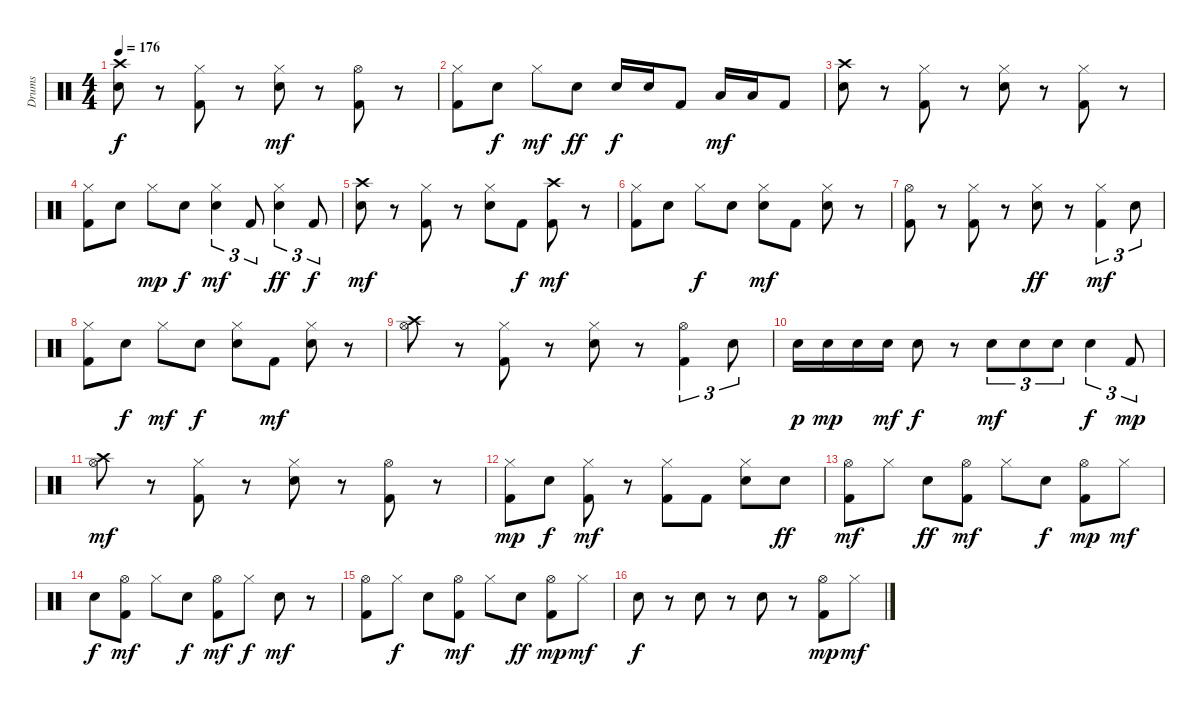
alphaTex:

\track ("Drums" "Drums") {instrument percussion}
\staff {score}
\articulation defaults
\ts (4 4)
\tempo 176
\clef neutral
\ks c
("Crash high (hit)" "Snare (hit) 2").8{dy f} r.8 ("Hi-Hat (closed)" "Kick (hit) 2").8 r.8 ("Hi-Hat (closed)" "Snare (hit) 2").8{dy mf} r.8 ("Hi-Hat (open)" "Kick (hit) 2").8 r.8 |
("Hi-Hat (closed)" "Kick (hit) 2").8 "Snare (hit) 2".8{dy f} "Hi-Hat (closed)".8{dy mf} "Snare (hit) 2".8{dy ff} "Snare (hit) 2".16{dy f} "Snare (hit) 2".16 "Kick (hit) 2".8 "Low Tom (hit)".16{dy mf} "Low Tom (hit)".16 "Kick (hit) 2".8 |
("Crash high (hit)" "Snare (hit) 2").8 r.8 ("Hi-Hat (closed)" "Kick (hit) 2").8 r.8 ("Hi-Hat (closed)" "Snare (hit) 2").8 r.8 ("Hi-Hat (closed)" "Kick (hit) 2").8 r.8 |
("Hi-Hat (closed)" "Kick (hit) 2").8 "Snare (hit) 2".8 "Hi-Hat (closed)".8{dy mp} "Snare (hit) 2".8{dy f} ("Hi-Hat (closed)" "Snare (hit) 2").4{tu (3 2) dy mf} "Kick (hit) 2".8{tu (3 2)} ("Hi-Hat (closed)" "Snare (hit) 2").4{tu (3 2) dy ff} "Kick (hit) 2".8{tu (3 2) dy f} |
("Crash high (hit)" "Snare (hit) 2").8{dy mf} r.8 ("Hi-Hat (closed)" "Kick (hit) 2").8 r.8 ("Hi-Hat (closed)" "Snare (hit) 2").8 "Kick (hit) 2".8{dy f} ("Crash high (hit)" "Kick (hit) 2").8{dy mf} r.8 |
("Hi-Hat (closed)" "Kick (hit) 2").8 "Snare (hit) 2".8 "Hi-Hat (closed)".8{dy f} "Snare (hit) 2".8 ("Hi-Hat (closed)" "Snare (hit) 2").8{dy mf} "Kick (hit) 2".8 ("Hi-Hat (closed)" "Snare (hit) 2").8 r.8 |
("Hi-Hat (open)" "Kick (hit) 2").8 r.8 ("Hi-Hat (closed)" "Kick (hit) 2").8 r.8 ("Hi-Hat (closed)" "Snare (hit) 2").8{dy ff} r.8 ("Hi-Hat (closed)" "Kick (hit) 2").4{tu (3 2) dy mf} "Snare (hit) 2".8{tu (3 2)} |
("Hi-Hat (closed)" "Kick (hit) 2").8 "Snare (hit) 2".8{dy f} "Hi-Hat (closed)".8{dy mf} "Snare (hit) 2".8{dy f} ("Hi-Hat (closed)" "Snare (hit) 2").8 "Kick (hit) 2".8{dy mf} ("Hi-Hat (closed)" "Snare (hit) 2").8 r.8 |
("Crash high (hit)" "Hi-Hat (open)").8 r.8 ("Hi-Hat (closed)" "Kick (hit) 2").8 r.8 ("Hi-Hat (closed)" "Snare (hit) 2").8 r.8 ("Hi-Hat (open)" "Kick (hit) 2").4{tu (3 2)} "Snare (hit) 2".8{tu (3 2)} |
"Snare (hit) 2".16{dy p} "Snare (hit) 2".16{dy mp} "Snare (hit) 2".16 "Snare (hit) 2".16{dy mf} "Snare (hit) 2".8{dy f} r.8 "Snare (hit) 2".8{tu (3 2) dy mf} "Snare (hit) 2".8{tu (3 2)} "Snare (hit) 2".8{tu (3 2)} "Snare (hit) 2".4{tu (3 2) dy f} "Kick (hit) 2".8{tu (3 2) dy mp} |
("Crash high (hit)" "Hi-Hat (open)").8{dy mf} r.8 ("Hi-Hat (closed)" "Kick (hit) 2").8 r.8 ("Hi-Hat (closed)" "Snare (hit) 2").8 r.8 ("Hi-Hat (open)" "Kick (hit) 2").8 r.8 |
("Hi-Hat (closed)" "Kick (hit) 2").8{dy mp} "Snare (hit) 2".8{dy f} ("Hi-Hat (closed)" "Kick (hit) 2").8{dy mf} r.8 ("Hi-Hat (closed)" "Kick (hit) 2").8 "Kick (hit) 2".8 ("Hi-Hat (closed)" "Snare (hit) 2").8 "Snare (hit) 2".8{dy ff} |
("Hi-Hat (open)" "Kick (hit) 2").8{dy mf} "Hi-Hat (closed)".8 "Snare (hit) 2".8{dy ff} ("Hi-Hat (open)" "Kick (hit) 2").8{dy mf} "Hi-Hat (closed)".8 "Snare (hit) 2".8{dy f} ("Hi-Hat (open)" "Kick (hit) 2").8{dy mp} "Hi-Hat (closed)".8{dy mf} |
"Snare (hit) 2".8{dy f} ("Hi-Hat (open)" "Kick (hit) 2").8{dy mf} "Hi-Hat (closed)".8 "Snare (hit) 2".8{dy f} ("Hi-Hat (open)" "Kick (hit) 2").8{dy mf} "Hi-Hat (closed)".8{dy f} "Snare (hit) 2".8{dy mf} r.8 |
("Hi-Hat (open)" "Kick (hit) 2").8 "Hi-Hat (closed)".8{dy f} "Snare (hit) 2".8 ("Hi-Hat (open)" "Kick (hit) 2").8{dy mf} "Hi-Hat (closed)".8 "Snare (hit) 2".8{dy ff} ("Hi-Hat (open)" "Kick (hit) 2").8{dy mp} "Hi-Hat (closed)".8{dy mf} |
"Snare (hit) 2".8{dy f} r.8 "Snare (hit) 2".8 r.8 "Snare (hit) 2".8 r.8 ("Hi-Hat (open)" "Kick (hit) 2").8{dy mp} "Hi-Hat (closed)".8{dy mf}
